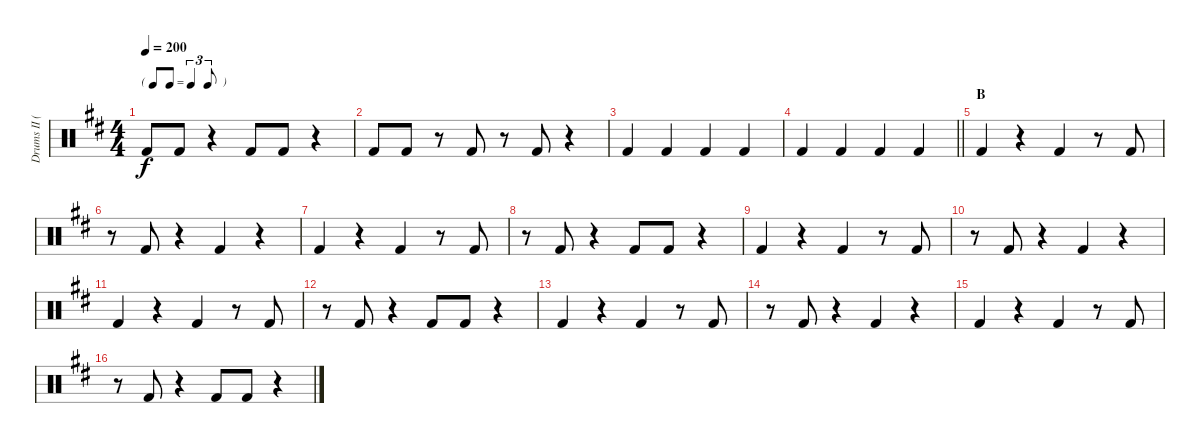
\track ("Drums II (Ruka)" "Drums II (") {instrument percussion}
\staff {score}
\articulation defaults
\ts (4 4)
\tf triplet8th
\tempo 200
\clef neutral
\ks d "Kick (hit) 2".8{dy f} "Kick (hit) 2".8
r.4 "Kick (hit) 2".8 "Kick (hit) 2".8 r.4 |
"Kick (hit) 2".8 "Kick (hit) 2".8 r.8 "Kick (hit) 2".8 r.8 "Kick (hit) 2".8 r.4 |
"Kick (hit) 2".4 "Kick (hit) 2".4 "Kick (hit) 2".4 "Kick (hit) 2".4 |
\barLineRight lightlight "Kick (hit) 2".4 "Kick (hit) 2".4 "Kick (hit) 2".4 "Kick (hit) 2".4
|
\section ("" "B")
"Kick (hit) 2".4 r.4 "Kick (hit) 2".4 r.8 "Kick (hit) 2".8 |
r.8 "Kick (hit) 2".8 r.4 "Kick (hit) 2".4 r.4 |
"Kick (hit) 2".4 r.4 "Kick (hit) 2".4 r.8 "Kick (hit) 2".8 |
r.8 "Kick (hit) 2".8 r.4 "Kick (hit) 2".8 "Kick (hit) 2".8 r.4 |
"Kick (hit) 2".4 r.4 "Kick (hit) 2".4 r.8 "Kick (hit) 2".8 |
r.8 "Kick (hit) 2".8 r.4 "Kick (hit) 2".4 r.4 |
"Kick (hit) 2".4 r.4 "Kick (hit) 2".4 r.8 "Kick (hit) 2".8 |
r.8 "Kick (hit) 2".8 r.4 "Kick (hit) 2".8 "Kick (hit) 2".8 r.4 |
"Kick (hit) 2".4 r.4 "Kick (hit) 2".4 r.8 "Kick (hit) 2".8 |
r.8 "Kick (hit) 2".8 r.4 "Kick (hit) 2".4 r.4 |
"Kick (hit) 2".4 r.4 "Kick (hit) 2".4 r.8 "Kick (hit) 2".8 |
r.8 "Kick (hit) 2".8 r.4 "Kick (hit) 2".8 "Kick (hit) 2".8 r.4
